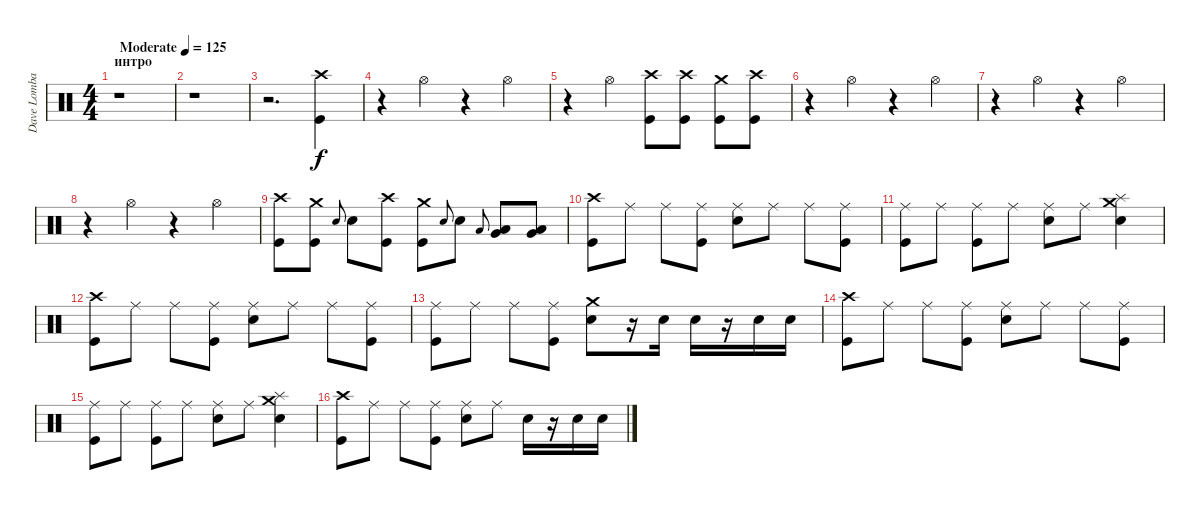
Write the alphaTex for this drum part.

\track ("Dave Lombardo" "Dave Lomba") {instrument percussion}
\staff {score}
\articulation defaults
\ts (4 4)
\section ("" "интро")
\tempo (125 "Moderate")
\clef neutral
\ks c
r.1{dy f} |
r.1 |
r.2{d} ("Crash high (hit)" "Kick (hit)").4 |
r.4 "Hi-Hat (open)".4 r.4 "Hi-Hat (open)".4 |
r.4 "Hi-Hat (open)".4 ("Crash high (hit)" "Kick (hit)").8 ("Crash high (hit)" "Kick (hit)").8 ("Crash medium (hit)" "Kick (hit)").8 ("Crash high (hit)" "Kick (hit)").8 |
r.4 "Hi-Hat (open)".4 r.4 "Hi-Hat (open)".4 |
r.4 "Hi-Hat (open)".4 r.4 "Hi-Hat (open)".4 |
r.4 "Hi-Hat (open)".4 r.4 "Hi-Hat (open)".4 |
("Crash high (hit)" "Kick (hit)").8 ("Crash medium (hit)" "Kick (hit)").8 "Snare (hit) 2".8{gr onbeat} "Snare (hit) 2".8 ("Crash high (hit)" "Kick (hit)").8 ("Crash medium (hit)" "Kick (hit)").8 "Snare (hit) 2".8{gr onbeat} "Snare (hit) 2".8 "Low Tom (hit)".8{gr onbeat} ("Low Tom (hit)" "Very Low Tom (hit)").8 ("Very Low Tom (hit)" "Low Floor Tom (hit)").8 |
("Crash high (hit)" "Kick (hit)").8 "Ride (middle)".8 "Ride (middle)".8 ("Ride (middle)" "Kick (hit)").8 ("Ride (middle)" "Snare (hit) 2").8 "Ride (middle)".8 "Ride (middle)".8 ("Ride (middle)" "Kick (hit)").8 |
("Ride (middle)" "Kick (hit)").8 "Ride (middle)".8 ("Ride (middle)" "Kick (hit)").8 "Ride (middle)".8 ("Ride (middle)" "Snare (hit) 2").8 "Ride (middle)".8 ("Splash (hit)" "Crash medium (hit)" "Snare (hit) 2").4 |
("Crash high (hit)" "Kick (hit)").8 "Ride (middle)".8 "Ride (middle)".8 ("Ride (middle)" "Kick (hit)").8 ("Ride (middle)" "Snare (hit) 2").8 "Ride (middle)".8 "Ride (middle)".8 ("Ride (middle)" "Kick (hit)").8 |
("Ride (middle)" "Kick (hit)").8 "Ride (middle)".8 "Ride (middle)".8 ("Ride (middle)" "Kick (hit)").8 ("Crash medium (hit)" "Snare (hit) 2").8 r.16 "Snare (hit) 2".16 "Snare (hit) 2".16 r.16 "Snare (hit) 2".16 "Snare (hit) 2".16 |
("Crash high (hit)" "Kick (hit)").8 "Ride (middle)".8 "Ride (middle)".8 ("Ride (middle)" "Kick (hit)").8 ("Ride (middle)" "Snare (hit) 2").8 "Ride (middle)".8 "Ride (middle)".8 ("Ride (middle)" "Kick (hit)").8 |
("Ride (middle)" "Kick (hit)").8 "Ride (middle)".8 ("Ride (middle)" "Kick (hit)").8 "Ride (middle)".8 ("Ride (middle)" "Snare (hit) 2").8 "Ride (middle)".8 ("Splash (hit)" "Crash medium (hit)" "Snare (hit) 2").4 |
("Crash high (hit)" "Kick (hit)").8 "Ride (middle)".8 "Ride (middle)".8 ("Ride (middle)" "Kick (hit)").8 ("Ride (middle)" "Snare (hit) 2").8 "Ride (middle)".8 "Snare (hit) 2".16 r.16 "Snare (hit) 2".16 "Snare (hit) 2".16
